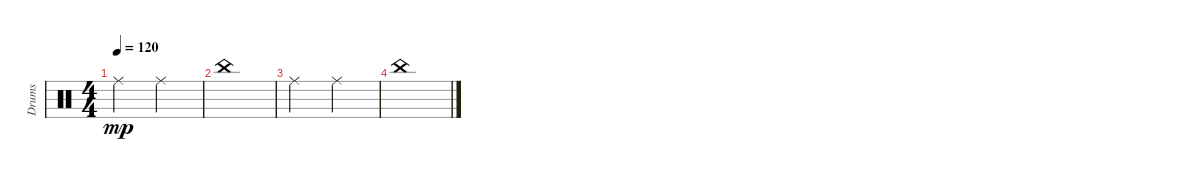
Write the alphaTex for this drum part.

\track ("Drums" "Drums") {instrument percussion}
\staff {score}
\articulation defaults
\ts (4 4)
\tempo 120
\clef neutral
\ks c "Ride (middle)".2{dy mp} "Ride (middle)".2
|
"China (hit)".1 |
"Ride (middle)".2 "Ride (middle)".2 |
"China (hit)".1
